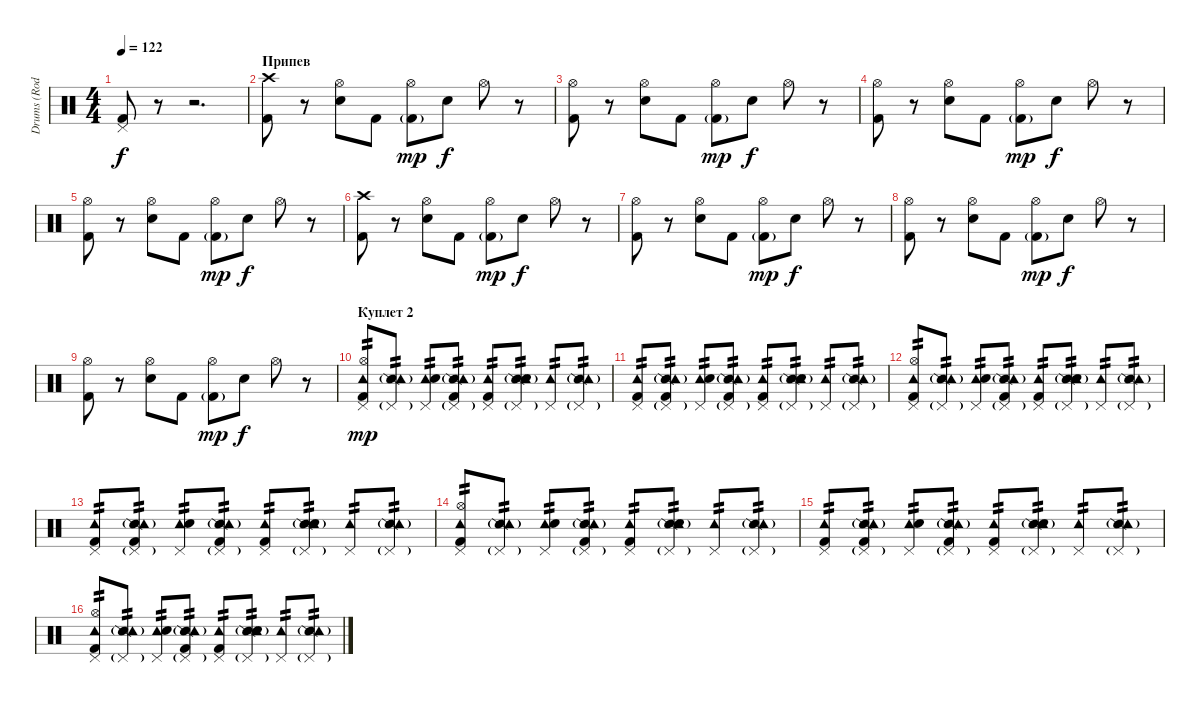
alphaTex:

\track ("Drums (Rod Bourdon)" "Drums (Rod") {instrument percussion}
\staff {score}
\articulation defaults
\ts (4 4)
\tempo 122
\clef neutral
\ks c
("Pedal Hi-Hat (hit)" "Kick (hit) 2").8{dy f} r.8 r.2{d} |
\section ("" "Припев")
("Crash high (hit)" "Kick (hit) 2").8 r.8 ("Hi-Hat (open)" "Electric Snare (hit)").8 "Kick (hit) 2".8 ("Hi-Hat (open)" "Kick (hit) 2"{g}).8{dy mp} "Electric Snare (hit)".8{dy f} "Hi-Hat (open)".8 r.8 |
("Hi-Hat (open)" "Kick (hit) 2").8 r.8 ("Hi-Hat (open)" "Electric Snare (hit)").8 "Kick (hit) 2".8 ("Hi-Hat (open)" "Kick (hit) 2"{g}).8{dy mp} "Electric Snare (hit)".8{dy f} "Hi-Hat (open)".8 r.8 |
("Hi-Hat (open)" "Kick (hit) 2").8 r.8 ("Hi-Hat (open)" "Electric Snare (hit)").8 "Kick (hit) 2".8 ("Hi-Hat (open)" "Kick (hit) 2"{g}).8{dy mp} "Electric Snare (hit)".8{dy f} "Hi-Hat (open)".8 r.8 |
("Hi-Hat (open)" "Kick (hit) 2").8 r.8 ("Hi-Hat (open)" "Electric Snare (hit)").8 "Kick (hit) 2".8 ("Hi-Hat (open)" "Kick (hit) 2"{g}).8{dy mp} "Electric Snare (hit)".8{dy f} "Hi-Hat (open)".8 r.8 |
("Crash high (hit)" "Kick (hit) 2").8 r.8 ("Hi-Hat (open)" "Electric Snare (hit)").8 "Kick (hit) 2".8 ("Hi-Hat (open)" "Kick (hit) 2"{g}).8{dy mp} "Electric Snare (hit)".8{dy f} "Hi-Hat (open)".8 r.8 |
("Hi-Hat (open)" "Kick (hit) 2").8 r.8 ("Hi-Hat (open)" "Electric Snare (hit)").8 "Kick (hit) 2".8 ("Hi-Hat (open)" "Kick (hit) 2"{g}).8{dy mp} "Electric Snare (hit)".8{dy f} "Hi-Hat (open)".8 r.8 |
("Hi-Hat (open)" "Kick (hit) 2").8 r.8 ("Hi-Hat (open)" "Electric Snare (hit)").8 "Kick (hit) 2".8 ("Hi-Hat (open)" "Kick (hit) 2"{g}).8{dy mp} "Electric Snare (hit)".8{dy f} "Hi-Hat (open)".8 r.8 |
("Hi-Hat (open)" "Kick (hit) 2").8 r.8 ("Hi-Hat (open)" "Electric Snare (hit)").8 "Kick (hit) 2".8 ("Hi-Hat (open)" "Kick (hit) 2"{g}).8{dy mp} "Electric Snare (hit)".8{dy f} "Hi-Hat (open)".8 r.8 |
\section ("" "Куплет 2")
("Pedal Hi-Hat (hit)" "Hi-Hat (open)" "Tambourine (hit)" "Kick (hit) 2").8{tp 2 dy mp} ("Snare (side stick) 2"{g} "Pedal Hi-Hat (hit)"{g} "Tambourine (hit)").8{tp 2} ("Pedal Hi-Hat (hit)" "Tambourine (hit)" "Electric Snare (hit)").8{tp 2} ("Snare (side stick) 2"{g} "Pedal Hi-Hat (hit)"{g} "Tambourine (hit)" "Kick (hit) 2").8{tp 2} ("Pedal Hi-Hat (hit)" "Tambourine (hit)" "Kick (hit) 2").8{tp 2} ("Snare (side stick) 2"{g} "Pedal Hi-Hat (hit)"{g} "Tambourine (hit)" "Electric Snare (hit)").8{tp 2} ("Pedal Hi-Hat (hit)" "Tambourine (hit)").8{tp 2} ("Snare (side stick) 2"{g} "Pedal Hi-Hat (hit)"{g} "Tambourine (hit)").8{tp 2} |
("Pedal Hi-Hat (hit)" "Tambourine (hit)" "Kick (hit) 2").8{tp 2} ("Snare (side stick) 2"{g} "Pedal Hi-Hat (hit)"{g} "Tambourine (hit)" "Kick (hit) 2").8{tp 2} ("Pedal Hi-Hat (hit)" "Tambourine (hit)" "Electric Snare (hit)").8{tp 2} ("Snare (side stick) 2"{g} "Pedal Hi-Hat (hit)"{g} "Tambourine (hit)" "Kick (hit) 2").8{tp 2} ("Pedal Hi-Hat (hit)" "Tambourine (hit)" "Kick (hit) 2").8{tp 2} ("Snare (side stick) 2"{g} "Pedal Hi-Hat (hit)"{g} "Tambourine (hit)" "Electric Snare (hit)").8{tp 2} ("Pedal Hi-Hat (hit)" "Tambourine (hit)").8{tp 2} ("Snare (side stick) 2"{g} "Pedal Hi-Hat (hit)"{g} "Tambourine (hit)").8{tp 2} |
("Pedal Hi-Hat (hit)" "Hi-Hat (open)" "Tambourine (hit)" "Kick (hit) 2").8{tp 2} ("Snare (side stick) 2"{g} "Pedal Hi-Hat (hit)"{g} "Tambourine (hit)").8{tp 2} ("Pedal Hi-Hat (hit)" "Tambourine (hit)" "Electric Snare (hit)").8{tp 2} ("Snare (side stick) 2"{g} "Pedal Hi-Hat (hit)"{g} "Tambourine (hit)" "Kick (hit) 2").8{tp 2} ("Pedal Hi-Hat (hit)" "Tambourine (hit)" "Kick (hit) 2").8{tp 2} ("Snare (side stick) 2"{g} "Pedal Hi-Hat (hit)"{g} "Tambourine (hit)" "Electric Snare (hit)").8{tp 2} ("Pedal Hi-Hat (hit)" "Tambourine (hit)").8{tp 2} ("Snare (side stick) 2"{g} "Pedal Hi-Hat (hit)"{g} "Tambourine (hit)").8{tp 2} |
("Pedal Hi-Hat (hit)" "Tambourine (hit)" "Kick (hit) 2").8{tp 2} ("Snare (side stick) 2"{g} "Pedal Hi-Hat (hit)"{g} "Tambourine (hit)" "Kick (hit) 2").8{tp 2} ("Pedal Hi-Hat (hit)" "Tambourine (hit)" "Electric Snare (hit)").8{tp 2} ("Snare (side stick) 2"{g} "Pedal Hi-Hat (hit)"{g} "Tambourine (hit)" "Kick (hit) 2").8{tp 2} ("Pedal Hi-Hat (hit)" "Tambourine (hit)" "Kick (hit) 2").8{tp 2} ("Snare (side stick) 2"{g} "Pedal Hi-Hat (hit)"{g} "Tambourine (hit)" "Electric Snare (hit)").8{tp 2} ("Pedal Hi-Hat (hit)" "Tambourine (hit)").8{tp 2} ("Snare (side stick) 2"{g} "Pedal Hi-Hat (hit)"{g} "Tambourine (hit)").8{tp 2} |
("Pedal Hi-Hat (hit)" "Hi-Hat (open)" "Tambourine (hit)" "Kick (hit) 2").8{tp 2} ("Snare (side stick) 2"{g} "Pedal Hi-Hat (hit)"{g} "Tambourine (hit)").8{tp 2} ("Pedal Hi-Hat (hit)" "Tambourine (hit)" "Electric Snare (hit)").8{tp 2} ("Snare (side stick) 2"{g} "Pedal Hi-Hat (hit)"{g} "Tambourine (hit)" "Kick (hit) 2").8{tp 2} ("Pedal Hi-Hat (hit)" "Tambourine (hit)" "Kick (hit) 2").8{tp 2} ("Snare (side stick) 2"{g} "Pedal Hi-Hat (hit)"{g} "Tambourine (hit)" "Electric Snare (hit)").8{tp 2} ("Pedal Hi-Hat (hit)" "Tambourine (hit)").8{tp 2} ("Snare (side stick) 2"{g} "Pedal Hi-Hat (hit)"{g} "Tambourine (hit)").8{tp 2} |
("Pedal Hi-Hat (hit)" "Tambourine (hit)" "Kick (hit) 2").8{tp 2} ("Snare (side stick) 2"{g} "Pedal Hi-Hat (hit)"{g} "Tambourine (hit)" "Kick (hit) 2").8{tp 2} ("Pedal Hi-Hat (hit)" "Tambourine (hit)" "Electric Snare (hit)").8{tp 2} ("Snare (side stick) 2"{g} "Pedal Hi-Hat (hit)"{g} "Tambourine (hit)" "Kick (hit) 2").8{tp 2} ("Pedal Hi-Hat (hit)" "Tambourine (hit)" "Kick (hit) 2").8{tp 2} ("Snare (side stick) 2"{g} "Pedal Hi-Hat (hit)"{g} "Tambourine (hit)" "Electric Snare (hit)").8{tp 2} ("Pedal Hi-Hat (hit)" "Tambourine (hit)").8{tp 2} ("Snare (side stick) 2"{g} "Pedal Hi-Hat (hit)"{g} "Tambourine (hit)").8{tp 2} |
("Pedal Hi-Hat (hit)" "Hi-Hat (open)" "Tambourine (hit)" "Kick (hit) 2").8{tp 2} ("Snare (side stick) 2"{g} "Pedal Hi-Hat (hit)"{g} "Tambourine (hit)").8{tp 2} ("Pedal Hi-Hat (hit)" "Tambourine (hit)" "Electric Snare (hit)").8{tp 2} ("Snare (side stick) 2"{g} "Pedal Hi-Hat (hit)"{g} "Tambourine (hit)" "Kick (hit) 2").8{tp 2} ("Pedal Hi-Hat (hit)" "Tambourine (hit)" "Kick (hit) 2").8{tp 2} ("Snare (side stick) 2"{g} "Pedal Hi-Hat (hit)"{g} "Tambourine (hit)" "Electric Snare (hit)").8{tp 2} ("Pedal Hi-Hat (hit)" "Tambourine (hit)").8{tp 2} ("Snare (side stick) 2"{g} "Pedal Hi-Hat (hit)"{g} "Tambourine (hit)").8{tp 2}
